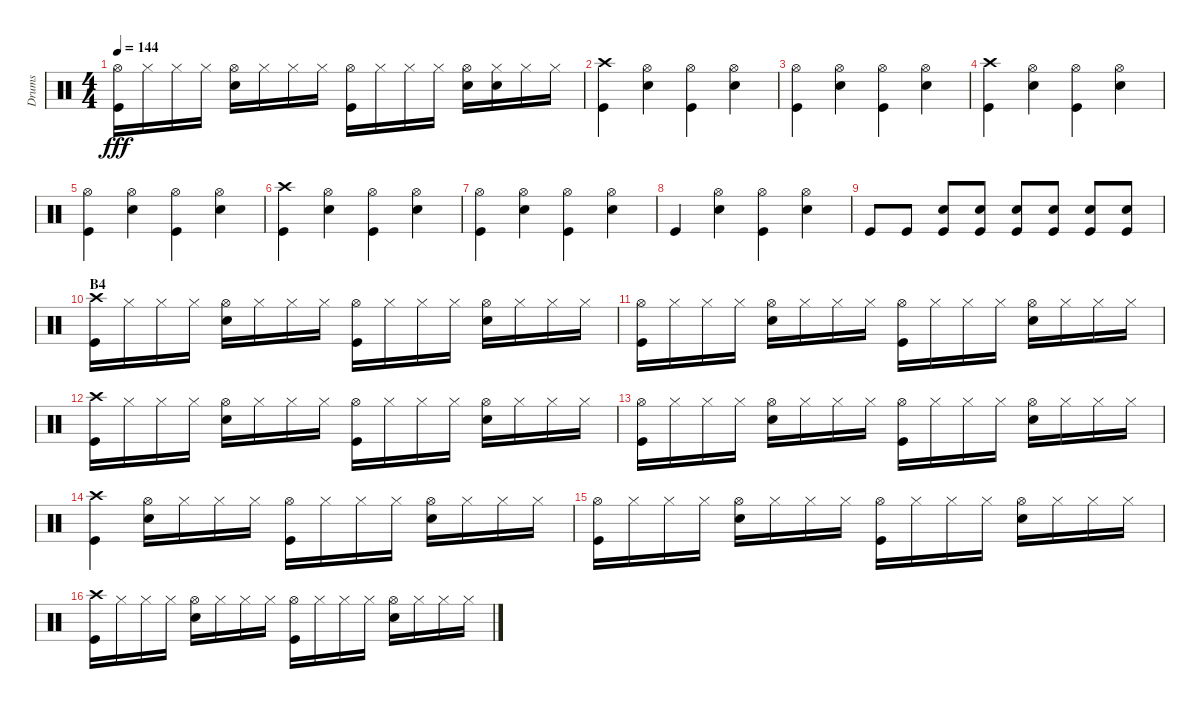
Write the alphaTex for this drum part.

\track ("Drums" "Drums") {instrument percussion}
\staff {score}
\articulation defaults
\ts (4 4)
\tempo 144
\clef neutral
\ks c
("Hi-Hat (open)" "Kick (hit)").16{dy fff} "Hi-Hat (closed)".16 "Hi-Hat (closed)".16 "Hi-Hat (closed)".16 ("Hi-Hat (open)" "Snare (hit) 2").16 "Hi-Hat (closed)".16 "Hi-Hat (closed)".16 "Hi-Hat (closed)".16 ("Hi-Hat (open)" "Kick (hit)").16 "Hi-Hat (closed)".16 "Hi-Hat (closed)".16 "Hi-Hat (closed)".16 ("Hi-Hat (open)" "Snare (hit) 2").16 ("Hi-Hat (closed)" "Snare (hit) 2").16 "Hi-Hat (closed)".16 "Hi-Hat (closed)".16 |
("Crash high (hit)" "Kick (hit)").4 ("Hi-Hat (open)" "Snare (hit) 2").4 ("Hi-Hat (open)" "Kick (hit)").4 ("Hi-Hat (open)" "Snare (hit) 2").4 |
("Hi-Hat (open)" "Kick (hit)").4 ("Hi-Hat (open)" "Snare (hit) 2").4 ("Hi-Hat (open)" "Kick (hit)").4 ("Hi-Hat (open)" "Snare (hit) 2").4 |
("Crash high (hit)" "Kick (hit)").4 ("Hi-Hat (open)" "Snare (hit) 2").4 ("Hi-Hat (open)" "Kick (hit)").4 ("Hi-Hat (open)" "Snare (hit) 2").4 |
("Hi-Hat (open)" "Kick (hit)").4 ("Hi-Hat (open)" "Snare (hit) 2").4 ("Hi-Hat (open)" "Kick (hit)").4 ("Hi-Hat (open)" "Snare (hit) 2").4 |
("Crash high (hit)" "Kick (hit)").4 ("Hi-Hat (open)" "Snare (hit) 2").4 ("Hi-Hat (open)" "Kick (hit)").4 ("Hi-Hat (open)" "Snare (hit) 2").4 |
("Hi-Hat (open)" "Kick (hit)").4 ("Hi-Hat (open)" "Snare (hit) 2").4 ("Hi-Hat (open)" "Kick (hit)").4 ("Hi-Hat (open)" "Snare (hit) 2").4 |
"Kick (hit)".4 ("Hi-Hat (open)" "Snare (hit) 2").4 ("Hi-Hat (open)" "Kick (hit)").4 ("Hi-Hat (open)" "Snare (hit) 2").4 |
"Kick (hit)".8 "Kick (hit)".8 ("Snare (hit) 2" "Kick (hit)").8 ("Snare (hit) 2" "Kick (hit)").8 ("Snare (hit) 2" "Kick (hit)").8 ("Snare (hit) 2" "Kick (hit)").8 ("Snare (hit) 2" "Kick (hit)").8 ("Snare (hit) 2" "Kick (hit)").8 |
\section ("" "B4")
("Crash high (hit)" "Kick (hit)").16 "Hi-Hat (closed)".16 "Hi-Hat (closed)".16 "Hi-Hat (closed)".16 ("Hi-Hat (open)" "Snare (hit) 2").16 "Hi-Hat (closed)".16 "Hi-Hat (closed)".16 "Hi-Hat (closed)".16 ("Hi-Hat (open)" "Kick (hit)").16 "Hi-Hat (closed)".16 "Hi-Hat (closed)".16 "Hi-Hat (closed)".16 ("Hi-Hat (open)" "Snare (hit) 2").16 "Hi-Hat (closed)".16 "Hi-Hat (closed)".16 "Hi-Hat (closed)".16 |
("Hi-Hat (open)" "Kick (hit)").16 "Hi-Hat (closed)".16 "Hi-Hat (closed)".16 "Hi-Hat (closed)".16 ("Hi-Hat (open)" "Snare (hit) 2").16 "Hi-Hat (closed)".16 "Hi-Hat (closed)".16 "Hi-Hat (closed)".16 ("Hi-Hat (open)" "Kick (hit)").16 "Hi-Hat (closed)".16 "Hi-Hat (closed)".16 "Hi-Hat (closed)".16 ("Hi-Hat (open)" "Snare (hit) 2").16 "Hi-Hat (closed)".16 "Hi-Hat (closed)".16 "Hi-Hat (closed)".16 |
("Crash high (hit)" "Kick (hit)").16 "Hi-Hat (closed)".16 "Hi-Hat (closed)".16 "Hi-Hat (closed)".16 ("Hi-Hat (open)" "Snare (hit) 2").16 "Hi-Hat (closed)".16 "Hi-Hat (closed)".16 "Hi-Hat (closed)".16 ("Hi-Hat (open)" "Kick (hit)").16 "Hi-Hat (closed)".16 "Hi-Hat (closed)".16 "Hi-Hat (closed)".16 ("Hi-Hat (open)" "Snare (hit) 2").16 "Hi-Hat (closed)".16 "Hi-Hat (closed)".16 "Hi-Hat (closed)".16 |
("Hi-Hat (open)" "Kick (hit)").16 "Hi-Hat (closed)".16 "Hi-Hat (closed)".16 "Hi-Hat (closed)".16 ("Hi-Hat (open)" "Snare (hit) 2").16 "Hi-Hat (closed)".16 "Hi-Hat (closed)".16 "Hi-Hat (closed)".16 ("Hi-Hat (open)" "Kick (hit)").16 "Hi-Hat (closed)".16 "Hi-Hat (closed)".16 "Hi-Hat (closed)".16 ("Hi-Hat (open)" "Snare (hit) 2").16 "Hi-Hat (closed)".16 "Hi-Hat (closed)".16 "Hi-Hat (closed)".16 |
("Crash high (hit)" "Kick (hit)").4 ("Hi-Hat (open)" "Snare (hit) 2").16 "Hi-Hat (closed)".16 "Hi-Hat (closed)".16 "Hi-Hat (closed)".16 ("Hi-Hat (open)" "Kick (hit)").16 "Hi-Hat (closed)".16 "Hi-Hat (closed)".16 "Hi-Hat (closed)".16 ("Hi-Hat (open)" "Snare (hit) 2").16 "Hi-Hat (closed)".16 "Hi-Hat (closed)".16 "Hi-Hat (closed)".16 |
("Hi-Hat (open)" "Kick (hit)").16 "Hi-Hat (closed)".16 "Hi-Hat (closed)".16 "Hi-Hat (closed)".16 ("Hi-Hat (open)" "Snare (hit) 2").16 "Hi-Hat (closed)".16 "Hi-Hat (closed)".16 "Hi-Hat (closed)".16 ("Hi-Hat (open)" "Kick (hit)").16 "Hi-Hat (closed)".16 "Hi-Hat (closed)".16 "Hi-Hat (closed)".16 ("Hi-Hat (open)" "Snare (hit) 2").16 "Hi-Hat (closed)".16 "Hi-Hat (closed)".16 "Hi-Hat (closed)".16 |
("Crash high (hit)" "Kick (hit)").16 "Hi-Hat (closed)".16 "Hi-Hat (closed)".16 "Hi-Hat (closed)".16 ("Hi-Hat (open)" "Snare (hit) 2").16 "Hi-Hat (closed)".16 "Hi-Hat (closed)".16 "Hi-Hat (closed)".16 ("Hi-Hat (open)" "Kick (hit)").16 "Hi-Hat (closed)".16 "Hi-Hat (closed)".16 "Hi-Hat (closed)".16 ("Hi-Hat (open)" "Snare (hit) 2").16 "Hi-Hat (closed)".16 "Hi-Hat (closed)".16 "Hi-Hat (closed)".16
